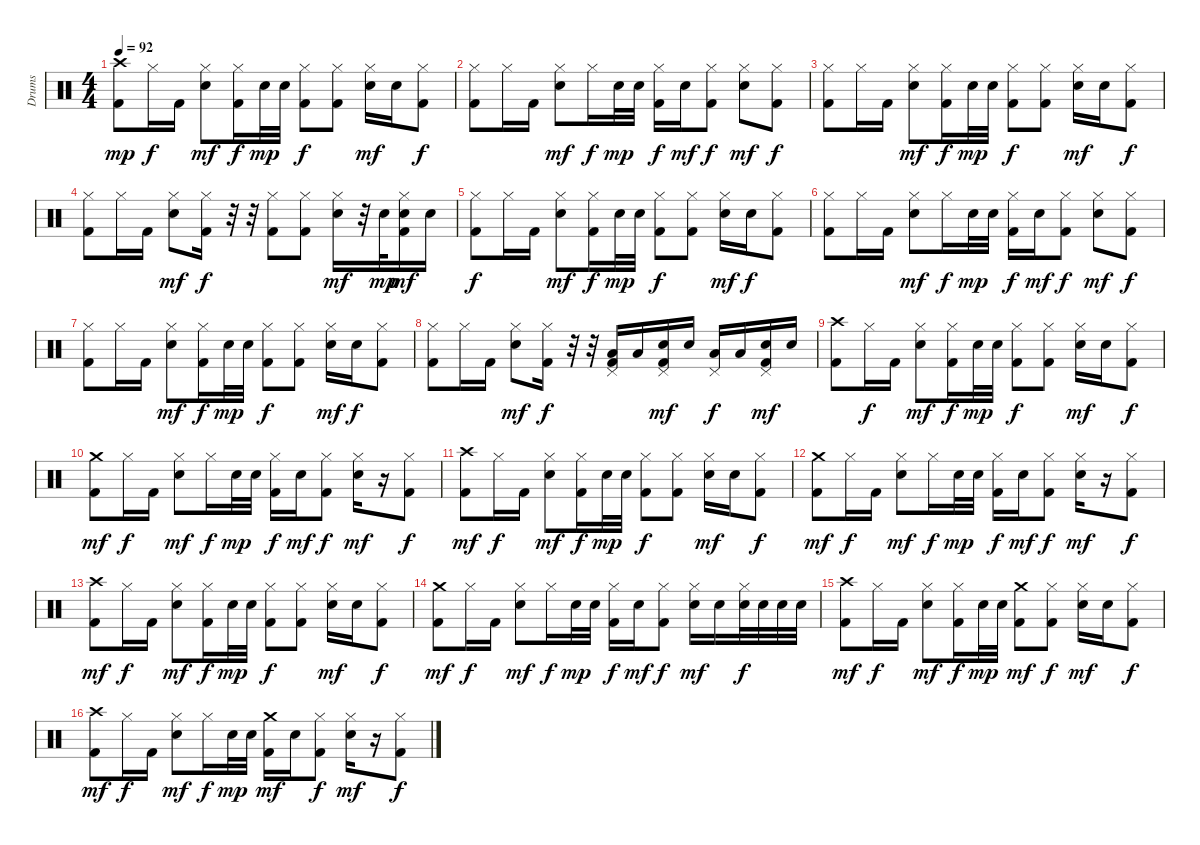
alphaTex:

\track ("Drums" "Drums") {instrument percussion}
\staff {score}
\articulation defaults
\ts (4 4)
\tempo 92
\clef neutral
\ks c
("Crash high (hit)" "Kick (hit) 2").8{dy mp} "Hi-Hat (closed)".16{dy f} "Kick (hit) 2".16 ("Hi-Hat (closed)" "Snare (hit) 2").8{dy mf} ("Hi-Hat (closed)" "Kick (hit) 2").16{dy f} "Snare (hit) 2".32{dy mp} "Snare (hit) 2".32 ("Hi-Hat (closed)" "Kick (hit) 2").8{dy f} ("Hi-Hat (closed)" "Kick (hit) 2").8 ("Hi-Hat (closed)" "Snare (hit) 2").16{dy mf} "Snare (hit) 2".16 ("Hi-Hat (closed)" "Kick (hit) 2").8{dy f} |
("Hi-Hat (closed)" "Kick (hit) 2").8 "Hi-Hat (closed)".16 "Kick (hit) 2".16 ("Hi-Hat (closed)" "Snare (hit) 2").8{dy mf} "Hi-Hat (closed)".16{dy f} "Snare (hit) 2".32{dy mp} "Snare (hit) 2".32 ("Hi-Hat (closed)" "Kick (hit) 2").16{dy f} "Snare (hit) 2".16{dy mf} ("Hi-Hat (closed)" "Kick (hit) 2").8{dy f} ("Hi-Hat (closed)" "Snare (hit) 2").8{dy mf} ("Hi-Hat (closed)" "Kick (hit) 2").8{dy f} |
("Hi-Hat (closed)" "Kick (hit) 2").8 "Hi-Hat (closed)".16 "Kick (hit) 2".16 ("Hi-Hat (closed)" "Snare (hit) 2").8{dy mf} ("Hi-Hat (closed)" "Kick (hit) 2").16{dy f} "Snare (hit) 2".32{dy mp} "Snare (hit) 2".32 ("Hi-Hat (closed)" "Kick (hit) 2").8{dy f} ("Hi-Hat (closed)" "Kick (hit) 2").8 ("Hi-Hat (closed)" "Snare (hit) 2").16{dy mf} "Snare (hit) 2".16 ("Hi-Hat (closed)" "Kick (hit) 2").8{dy f} |
("Hi-Hat (closed)" "Kick (hit) 2").8 "Hi-Hat (closed)".16 "Kick (hit) 2".16 ("Hi-Hat (closed)" "Snare (hit) 2").8{dy mf} ("Hi-Hat (closed)" "Kick (hit) 2").16{dy f} r.32 r.32 ("Hi-Hat (closed)" "Kick (hit) 2").8 ("Hi-Hat (closed)" "Kick (hit) 2").8 ("Hi-Hat (closed)" "Snare (hit) 2").16{dy mf} r.32 "Snare (hit) 2".32{dy mp} ("Hi-Hat (closed)" "Snare (hit) 2" "Kick (hit) 2").16{dy mf} "Snare (hit) 2".16 |
("Hi-Hat (closed)" "Kick (hit) 2").8{dy f} "Hi-Hat (closed)".16 "Kick (hit) 2".16 ("Hi-Hat (closed)" "Snare (hit) 2").8{dy mf} ("Hi-Hat (closed)" "Kick (hit) 2").16{dy f} "Snare (hit) 2".32{dy mp} "Snare (hit) 2".32 ("Hi-Hat (closed)" "Kick (hit) 2").8{dy f} ("Hi-Hat (closed)" "Kick (hit) 2").8 ("Hi-Hat (closed)" "Snare (hit) 2").16{dy mf} "Snare (hit) 2".16{dy f} ("Hi-Hat (closed)" "Kick (hit) 2").8 |
("Hi-Hat (closed)" "Kick (hit) 2").8 "Hi-Hat (closed)".16 "Kick (hit) 2".16 ("Hi-Hat (closed)" "Snare (hit) 2").8{dy mf} "Hi-Hat (closed)".16{dy f} "Snare (hit) 2".32{dy mp} "Snare (hit) 2".32 ("Hi-Hat (closed)" "Kick (hit) 2").16{dy f} "Snare (hit) 2".16{dy mf} ("Hi-Hat (closed)" "Kick (hit) 2").8{dy f} ("Hi-Hat (closed)" "Snare (hit) 2").8{dy mf} ("Hi-Hat (closed)" "Kick (hit) 2").8{dy f} |
("Hi-Hat (closed)" "Kick (hit) 2").8 "Hi-Hat (closed)".16 "Kick (hit) 2".16 ("Hi-Hat (closed)" "Snare (hit) 2").8{dy mf} ("Hi-Hat (closed)" "Kick (hit) 2").16{dy f} "Snare (hit) 2".32{dy mp} "Snare (hit) 2".32 ("Hi-Hat (closed)" "Kick (hit) 2").8{dy f} ("Hi-Hat (closed)" "Kick (hit) 2").8 ("Hi-Hat (closed)" "Snare (hit) 2").16{dy mf} "Snare (hit) 2".16{dy f} ("Hi-Hat (closed)" "Kick (hit) 2").8 |
("Hi-Hat (closed)" "Kick (hit) 2").8 "Hi-Hat (closed)".16 "Kick (hit) 2".16 ("Hi-Hat (closed)" "Snare (hit) 2").8{dy mf} ("Hi-Hat (closed)" "Kick (hit) 2").16{dy f} r.32 r.32 ("Pedal Hi-Hat (hit)" "Low Tom (hit)" "Kick (hit) 2").16 "Low Tom (hit)".16 ("Pedal Hi-Hat (hit)" "Snare (hit) 2" "Kick (hit) 2").16{dy mf} "Snare (hit) 2".16 ("Pedal Hi-Hat (hit)" "Low Tom (hit)").16{dy f} "Low Tom (hit)".16 ("Pedal Hi-Hat (hit)" "Snare (hit) 2" "Kick (hit) 2").16{dy mf} "Snare (hit) 2".16 |
("Crash high (hit)" "Kick (hit) 2").8 "Hi-Hat (closed)".16{dy f} "Kick (hit) 2".16 ("Hi-Hat (closed)" "Snare (hit) 2").8{dy mf} ("Hi-Hat (closed)" "Kick (hit) 2").16{dy f} "Snare (hit) 2".32{dy mp} "Snare (hit) 2".32 ("Hi-Hat (closed)" "Kick (hit) 2").8{dy f} ("Hi-Hat (closed)" "Kick (hit) 2").8 ("Hi-Hat (closed)" "Snare (hit) 2").16{dy mf} "Snare (hit) 2".16 ("Hi-Hat (closed)" "Kick (hit) 2").8{dy f} |
("Crash medium (hit)" "Kick (hit) 2").8{dy mf} "Hi-Hat (closed)".16{dy f} "Kick (hit) 2".16 ("Hi-Hat (closed)" "Snare (hit) 2").8{dy mf} "Hi-Hat (closed)".16{dy f} "Snare (hit) 2".32{dy mp} "Snare (hit) 2".32 ("Hi-Hat (closed)" "Kick (hit) 2").16{dy f} "Snare (hit) 2".16{dy mf} ("Hi-Hat (closed)" "Kick (hit) 2").8{dy f} ("Hi-Hat (closed)" "Snare (hit) 2").16{dy mf} r.16 ("Hi-Hat (closed)" "Kick (hit) 2").8{dy f} |
("Crash high (hit)" "Kick (hit) 2").8{dy mf} "Hi-Hat (closed)".16{dy f} "Kick (hit) 2".16 ("Hi-Hat (closed)" "Snare (hit) 2").8{dy mf} ("Hi-Hat (closed)" "Kick (hit) 2").16{dy f} "Snare (hit) 2".32{dy mp} "Snare (hit) 2".32 ("Hi-Hat (closed)" "Kick (hit) 2").8{dy f} ("Hi-Hat (closed)" "Kick (hit) 2").8 ("Hi-Hat (closed)" "Snare (hit) 2").16{dy mf} "Snare (hit) 2".16 ("Hi-Hat (closed)" "Kick (hit) 2").8{dy f} |
("Crash medium (hit)" "Kick (hit) 2").8{dy mf} "Hi-Hat (closed)".16{dy f} "Kick (hit) 2".16 ("Hi-Hat (closed)" "Snare (hit) 2").8{dy mf} "Hi-Hat (closed)".16{dy f} "Snare (hit) 2".32{dy mp} "Snare (hit) 2".32 ("Hi-Hat (closed)" "Kick (hit) 2").16{dy f} "Snare (hit) 2".16{dy mf} ("Hi-Hat (closed)" "Kick (hit) 2").8{dy f} ("Hi-Hat (closed)" "Snare (hit) 2").16{dy mf} r.16 ("Hi-Hat (closed)" "Kick (hit) 2").8{dy f} |
("Crash high (hit)" "Kick (hit) 2").8{dy mf} "Hi-Hat (closed)".16{dy f} "Kick (hit) 2".16 ("Hi-Hat (closed)" "Snare (hit) 2").8{dy mf} ("Hi-Hat (closed)" "Kick (hit) 2").16{dy f} "Snare (hit) 2".32{dy mp} "Snare (hit) 2".32 ("Hi-Hat (closed)" "Kick (hit) 2").8{dy f} ("Hi-Hat (closed)" "Kick (hit) 2").8 ("Hi-Hat (closed)" "Snare (hit) 2").16{dy mf} "Snare (hit) 2".16 ("Hi-Hat (closed)" "Kick (hit) 2").8{dy f} |
("Crash medium (hit)" "Kick (hit) 2").8{dy mf} "Hi-Hat (closed)".16{dy f} "Kick (hit) 2".16 ("Hi-Hat (closed)" "Snare (hit) 2").8{dy mf} "Hi-Hat (closed)".16{dy f} "Snare (hit) 2".32{dy mp} "Snare (hit) 2".32 ("Hi-Hat (closed)" "Kick (hit) 2").16{dy f} "Snare (hit) 2".16{dy mf} ("Hi-Hat (closed)" "Kick (hit) 2").8{dy f} ("Hi-Hat (closed)" "Snare (hit) 2").16{dy mf} "Snare (hit) 2".16 ("Hi-Hat (closed)" "Snare (hit) 2").32{dy f} "Snare (hit) 2".32 "Snare (hit) 2".32 "Snare (hit) 2".32 |
("Crash high (hit)" "Kick (hit) 2").8{dy mf} "Hi-Hat (closed)".16{dy f} "Kick (hit) 2".16 ("Hi-Hat (closed)" "Snare (hit) 2").8{dy mf} ("Hi-Hat (closed)" "Kick (hit) 2").16{dy f} "Snare (hit) 2".32{dy mp} "Snare (hit) 2".32 ("Crash medium (hit)" "Kick (hit) 2").8{dy mf} ("Hi-Hat (closed)" "Kick (hit) 2").8{dy f} ("Hi-Hat (closed)" "Snare (hit) 2").16{dy mf} "Snare (hit) 2".16 ("Hi-Hat (closed)" "Kick (hit) 2").8{dy f} |
("Crash high (hit)" "Kick (hit) 2").8{dy mf} "Hi-Hat (closed)".16{dy f} "Kick (hit) 2".16 ("Hi-Hat (closed)" "Snare (hit) 2").8{dy mf} "Hi-Hat (closed)".16{dy f} "Snare (hit) 2".32{dy mp} "Snare (hit) 2".32 ("Crash medium (hit)" "Kick (hit) 2").16{dy mf} "Snare (hit) 2".16 ("Hi-Hat (closed)" "Kick (hit) 2").8{dy f} ("Hi-Hat (closed)" "Snare (hit) 2").16{dy mf} r.16 ("Hi-Hat (closed)" "Kick (hit) 2").8{dy f}
